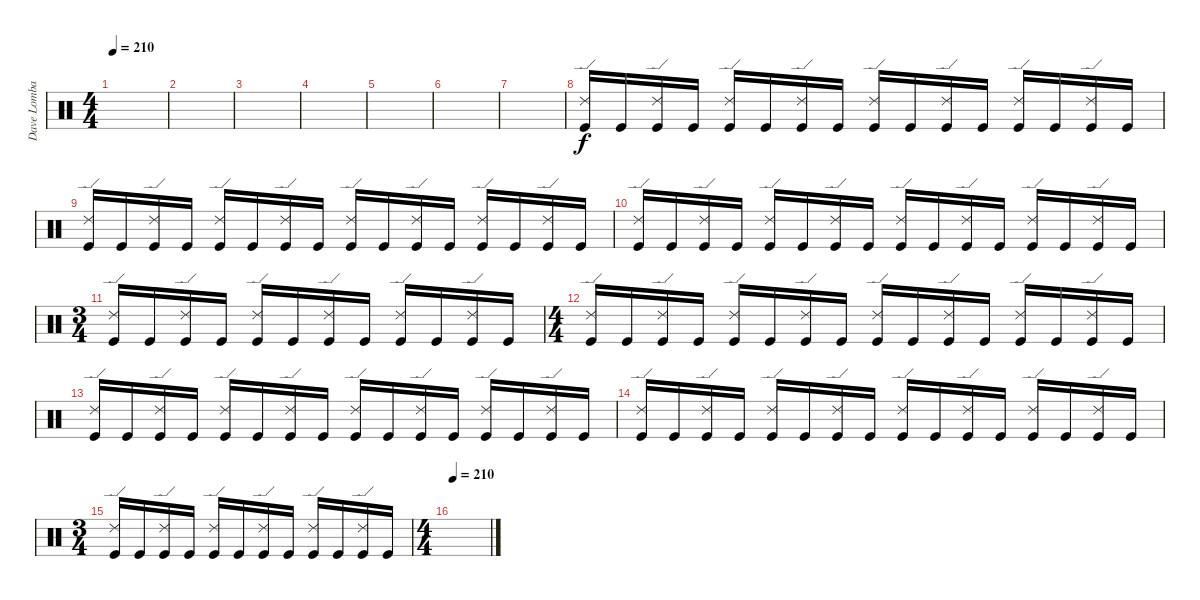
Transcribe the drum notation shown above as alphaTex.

\track ("Dave Lombardo:" "Dave Lomba") {instrument percussion}
\staff {score}
\articulation defaults
\ts (4 4)
\tempo 210
\clef neutral
\ks c
|
|
|
|
|
|
|
("Ride (edge) 2" "Kick (hit)").16 "Kick (hit)".16 ("Ride (edge) 2" "Kick (hit)").16 "Kick (hit)".16 ("Ride (edge) 2" "Kick (hit)").16 "Kick (hit)".16 ("Ride (edge) 2" "Kick (hit)").16 "Kick (hit)".16 ("Ride (edge) 2" "Kick (hit)").16 "Kick (hit)".16 ("Ride (edge) 2" "Kick (hit)").16 "Kick (hit)".16 ("Ride (edge) 2" "Kick (hit)").16 "Kick (hit)".16 ("Ride (edge) 2" "Kick (hit)").16 "Kick (hit)".16 |
("Ride (edge) 2" "Kick (hit)").16 "Kick (hit)".16 ("Ride (edge) 2" "Kick (hit)").16 "Kick (hit)".16 ("Ride (edge) 2" "Kick (hit)").16 "Kick (hit)".16 ("Ride (edge) 2" "Kick (hit)").16 "Kick (hit)".16 ("Ride (edge) 2" "Kick (hit)").16 "Kick (hit)".16 ("Ride (edge) 2" "Kick (hit)").16 "Kick (hit)".16 ("Ride (edge) 2" "Kick (hit)").16 "Kick (hit)".16 ("Ride (edge) 2" "Kick (hit)").16 "Kick (hit)".16 |
("Ride (edge) 2" "Kick (hit)").16 "Kick (hit)".16 ("Ride (edge) 2" "Kick (hit)").16 "Kick (hit)".16 ("Ride (edge) 2" "Kick (hit)").16 "Kick (hit)".16 ("Ride (edge) 2" "Kick (hit)").16 "Kick (hit)".16 ("Ride (edge) 2" "Kick (hit)").16 "Kick (hit)".16 ("Ride (edge) 2" "Kick (hit)").16 "Kick (hit)".16 ("Ride (edge) 2" "Kick (hit)").16 "Kick (hit)".16 ("Ride (edge) 2" "Kick (hit)").16 "Kick (hit)".16 |
\ts (3 4)
("Ride (edge) 2" "Kick (hit)").16 "Kick (hit)".16 ("Ride (edge) 2" "Kick (hit)").16 "Kick (hit)".16 ("Ride (edge) 2" "Kick (hit)").16 "Kick (hit)".16 ("Ride (edge) 2" "Kick (hit)").16 "Kick (hit)".16 ("Ride (edge) 2" "Kick (hit)").16 "Kick (hit)".16 ("Ride (edge) 2" "Kick (hit)").16 "Kick (hit)".16 |
\ts (4 4)
("Ride (edge) 2" "Kick (hit)").16 "Kick (hit)".16 ("Ride (edge) 2" "Kick (hit)").16 "Kick (hit)".16 ("Ride (edge) 2" "Kick (hit)").16 "Kick (hit)".16 ("Ride (edge) 2" "Kick (hit)").16 "Kick (hit)".16 ("Ride (edge) 2" "Kick (hit)").16 "Kick (hit)".16 ("Ride (edge) 2" "Kick (hit)").16 "Kick (hit)".16 ("Ride (edge) 2" "Kick (hit)").16 "Kick (hit)".16 ("Ride (edge) 2" "Kick (hit)").16 "Kick (hit)".16 |
("Ride (edge) 2" "Kick (hit)").16 "Kick (hit)".16 ("Ride (edge) 2" "Kick (hit)").16 "Kick (hit)".16 ("Ride (edge) 2" "Kick (hit)").16 "Kick (hit)".16 ("Ride (edge) 2" "Kick (hit)").16 "Kick (hit)".16 ("Ride (edge) 2" "Kick (hit)").16 "Kick (hit)".16 ("Ride (edge) 2" "Kick (hit)").16 "Kick (hit)".16 ("Ride (edge) 2" "Kick (hit)").16 "Kick (hit)".16 ("Ride (edge) 2" "Kick (hit)").16 "Kick (hit)".16 |
("Ride (edge) 2" "Kick (hit)").16 "Kick (hit)".16 ("Ride (edge) 2" "Kick (hit)").16 "Kick (hit)".16 ("Ride (edge) 2" "Kick (hit)").16 "Kick (hit)".16 ("Ride (edge) 2" "Kick (hit)").16 "Kick (hit)".16 ("Ride (edge) 2" "Kick (hit)").16 "Kick (hit)".16 ("Ride (edge) 2" "Kick (hit)").16 "Kick (hit)".16 ("Ride (edge) 2" "Kick (hit)").16 "Kick (hit)".16 ("Ride (edge) 2" "Kick (hit)").16 "Kick (hit)".16 |
\ts (3 4)
("Ride (edge) 2" "Kick (hit)").16 "Kick (hit)".16 ("Ride (edge) 2" "Kick (hit)").16 "Kick (hit)".16 ("Ride (edge) 2" "Kick (hit)").16 "Kick (hit)".16 ("Ride (edge) 2" "Kick (hit)").16 "Kick (hit)".16 ("Ride (edge) 2" "Kick (hit)").16 "Kick (hit)".16 ("Ride (edge) 2" "Kick (hit)").16 "Kick (hit)".16 |
\ts (4 4)
\tempo 210
